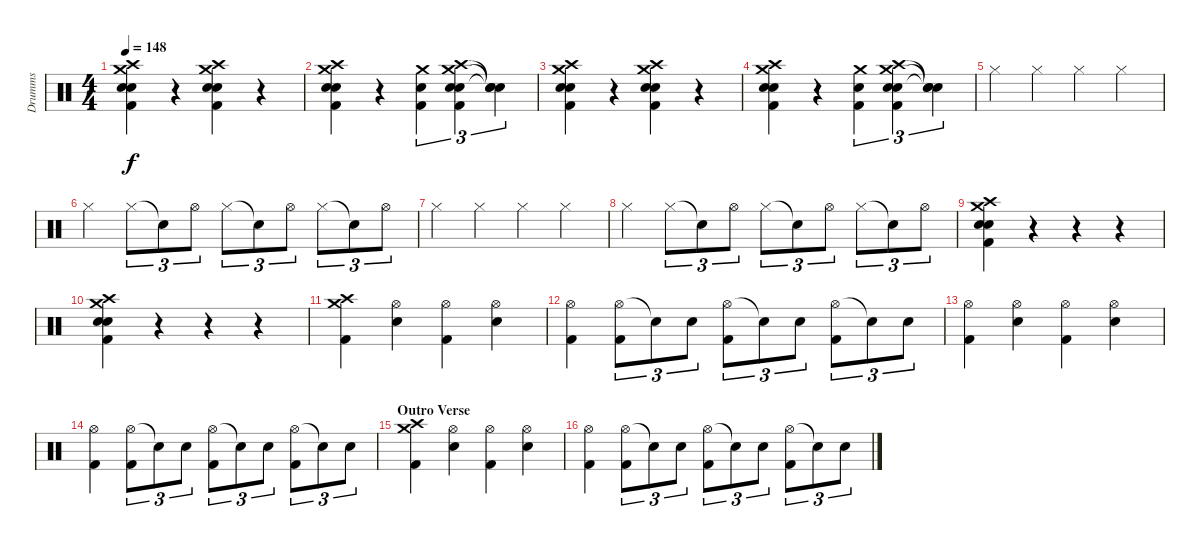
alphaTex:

\track ("Drumms" "Drumms") {instrument percussion}
\staff {score}
\articulation defaults
\ts (4 4)
\tempo 148
\clef neutral
\ks c
("Crash high (hit)" "Crash medium (hit)" "Snare (hit) 2" "Kick (hit) 2" "Snare (hit) 2").4{dy f} r.4 ("Crash high (hit)" "Crash medium (hit)" "Snare (hit) 2" "Kick (hit) 2" "Snare (hit) 2").4 r.4 |
("Crash high (hit)" "Crash medium (hit)" "Snare (hit) 2" "Kick (hit) 2" "Snare (hit) 2").4 r.4 ("Crash medium (hit)" "Kick (hit) 2" "Snare (hit) 2").4{tu (3 2)} ("Crash high (hit)" "Crash medium (hit)" "Snare (hit) 2" "Kick (hit) 2" "Snare (hit) 2").4{tu (3 2)} ("Snare (hit)"{t} "Snare (hit)"{t} "Snare (hit)"{t}).4{tu (3 2)} |
("Crash high (hit)" "Crash medium (hit)" "Snare (hit) 2" "Kick (hit) 2" "Snare (hit) 2").4 r.4 ("Crash high (hit)" "Crash medium (hit)" "Snare (hit) 2" "Kick (hit) 2" "Snare (hit) 2").4 r.4 |
("Crash high (hit)" "Crash medium (hit)" "Snare (hit) 2" "Kick (hit) 2" "Snare (hit) 2").4 r.4 ("Crash medium (hit)" "Kick (hit) 2" "Snare (hit) 2").4{tu (3 2)} ("Crash high (hit)" "Crash medium (hit)" "Snare (hit) 2" "Kick (hit) 2" "Snare (hit) 2").4{tu (3 2)} ("Snare (hit)"{t} "Snare (hit)"{t} "Snare (hit)"{t}).4{tu (3 2)} |
"Hi-Hat (closed)".4 "Hi-Hat (closed)".4 "Hi-Hat (closed)".4 "Hi-Hat (closed)".4 |
"Hi-Hat (closed)".4 "Hi-Hat (closed)".8{tu (3 2)} "Snare (hit)"{t}.8{tu (3 2)} "Hi-Hat (open)".8{tu (3 2)} "Hi-Hat (closed)".8{tu (3 2)} "Snare (hit)"{t}.8{tu (3 2)} "Hi-Hat (open)".8{tu (3 2)} "Hi-Hat (closed)".8{tu (3 2)} "Snare (hit)"{t}.8{tu (3 2)} "Hi-Hat (open)".8{tu (3 2)} |
"Hi-Hat (closed)".4 "Hi-Hat (closed)".4 "Hi-Hat (closed)".4 "Hi-Hat (closed)".4 |
"Hi-Hat (closed)".4 "Hi-Hat (closed)".8{tu (3 2)} "Snare (hit)"{t}.8{tu (3 2)} "Hi-Hat (open)".8{tu (3 2)} "Hi-Hat (closed)".8{tu (3 2)} "Snare (hit)"{t}.8{tu (3 2)} "Hi-Hat (open)".8{tu (3 2)} "Hi-Hat (closed)".8{tu (3 2)} "Snare (hit)"{t}.8{tu (3 2)} "Hi-Hat (open)".8{tu (3 2)} |
("Crash medium (hit)" "Snare (hit) 2" "Snare (hit) 2" "Kick (hit) 2" "Crash high (hit)").4 r.4 r.4 r.4 |
("Crash medium (hit)" "Snare (hit) 2" "Snare (hit) 2" "Kick (hit) 2" "Crash high (hit)").4 r.4 r.4 r.4 |
("Crash high (hit)" "Crash medium (hit)" "Kick (hit) 2").4 ("Hi-Hat (open)" "Snare (hit) 2").4 ("Hi-Hat (open)" "Kick (hit) 2").4 ("Hi-Hat (open)" "Snare (hit) 2").4 |
("Hi-Hat (open)" "Kick (hit) 2").4 ("Hi-Hat (open)" "Kick (hit) 2").8{tu (3 2)} "Snare (hit)"{t}.8{tu (3 2)} "Snare (hit) 2".8{tu (3 2)} ("Hi-Hat (open)" "Kick (hit) 2").8{tu (3 2)} "Snare (hit)"{t}.8{tu (3 2)} "Snare (hit) 2".8{tu (3 2)} ("Hi-Hat (open)" "Kick (hit) 2").8{tu (3 2)} "Snare (hit) 2"{t}.8{tu (3 2)} "Snare (hit) 2".8{tu (3 2)} |
("Hi-Hat (open)" "Kick (hit) 2").4 ("Hi-Hat (open)" "Snare (hit) 2").4 ("Hi-Hat (open)" "Kick (hit) 2").4 ("Hi-Hat (open)" "Snare (hit) 2").4 |
("Hi-Hat (open)" "Kick (hit) 2").4 ("Hi-Hat (open)" "Kick (hit) 2").8{tu (3 2)} "Snare (hit)"{t}.8{tu (3 2)} "Snare (hit) 2".8{tu (3 2)} ("Hi-Hat (open)" "Kick (hit) 2").8{tu (3 2)} "Snare (hit)"{t}.8{tu (3 2)} "Snare (hit) 2".8{tu (3 2)} ("Hi-Hat (open)" "Kick (hit) 2").8{tu (3 2)} "Snare (hit) 2"{t}.8{tu (3 2)} "Snare (hit) 2".8{tu (3 2)} |
\section ("" "Outro Verse")
("Crash high (hit)" "Crash medium (hit)" "Kick (hit) 2").4 ("Hi-Hat (open)" "Snare (hit) 2").4 ("Hi-Hat (open)" "Kick (hit) 2").4 ("Hi-Hat (open)" "Snare (hit) 2").4 |
("Hi-Hat (open)" "Kick (hit) 2").4 ("Hi-Hat (open)" "Kick (hit) 2").8{tu (3 2)} "Snare (hit)"{t}.8{tu (3 2)} "Snare (hit) 2".8{tu (3 2)} ("Hi-Hat (open)" "Kick (hit) 2").8{tu (3 2)} "Snare (hit)"{t}.8{tu (3 2)} "Snare (hit) 2".8{tu (3 2)} ("Hi-Hat (open)" "Kick (hit) 2").8{tu (3 2)} "Snare (hit) 2"{t}.8{tu (3 2)} "Snare (hit) 2".8{tu (3 2)}
